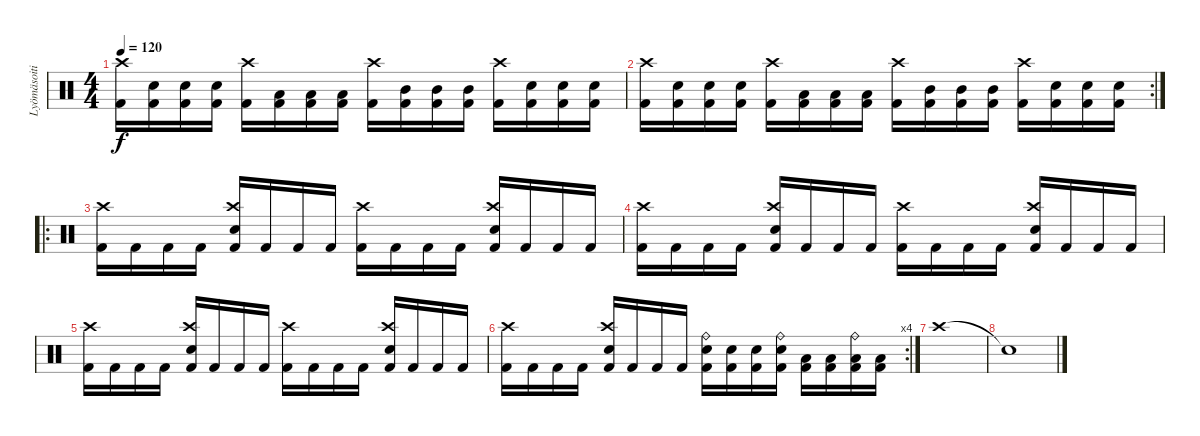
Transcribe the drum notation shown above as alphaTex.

\track ("Lyömäsoitin" "Lyömäsoiti") {instrument percussion}
\staff {score}
\articulation defaults
\ts (4 4)
\tempo 120
\clef neutral
\ks c
("Kick (hit) 2" "Crash high (hit)").16{dy f} ("Kick (hit) 2" "Electric Snare (hit)").16 ("Kick (hit) 2" "Electric Snare (hit)").16 ("Kick (hit) 2" "Electric Snare (hit)").16 ("Kick (hit) 2" "Crash high (hit)").16 ("Kick (hit) 2" "Low Tom (hit)").16 ("Kick (hit) 2" "Low Tom (hit)").16 ("Kick (hit) 2" "Low Tom (hit)").16 ("Kick (hit) 2" "Crash high (hit)").16 ("Kick (hit) 2" "Mid Tom (hit)").16 ("Kick (hit) 2" "Mid Tom (hit)").16 ("Kick (hit) 2" "Mid Tom (hit)").16 ("Kick (hit) 2" "Crash high (hit)").16 ("Kick (hit) 2" "Electric Snare (hit)").16 ("Kick (hit) 2" "Electric Snare (hit)").16 ("Kick (hit) 2" "Electric Snare (hit)").16 |
\rc 2
("Kick (hit) 2" "Crash high (hit)").16 ("Kick (hit) 2" "Electric Snare (hit)").16 ("Kick (hit) 2" "Electric Snare (hit)").16 ("Kick (hit) 2" "Electric Snare (hit)").16 ("Kick (hit) 2" "Crash high (hit)").16 ("Kick (hit) 2" "Low Tom (hit)").16 ("Kick (hit) 2" "Low Tom (hit)").16 ("Kick (hit) 2" "Low Tom (hit)").16 ("Kick (hit) 2" "Crash high (hit)").16 ("Kick (hit) 2" "Mid Tom (hit)").16 ("Kick (hit) 2" "Mid Tom (hit)").16 ("Kick (hit) 2" "Mid Tom (hit)").16 ("Kick (hit) 2" "Crash high (hit)").16 ("Kick (hit) 2" "Electric Snare (hit)").16 ("Kick (hit) 2" "Electric Snare (hit)").16 ("Kick (hit) 2" "Electric Snare (hit)").16 |
\ro
("Kick (hit) 2" "Crash high (hit)").16 "Kick (hit) 2".16 "Kick (hit) 2".16 "Kick (hit) 2".16 ("Kick (hit) 2" "Crash high (hit)" "Electric Snare (hit)").16 "Kick (hit) 2".16 "Kick (hit) 2".16 "Kick (hit) 2".16 ("Kick (hit) 2" "Crash high (hit)").16 "Kick (hit) 2".16 "Kick (hit) 2".16 "Kick (hit) 2".16 ("Kick (hit) 2" "Crash high (hit)" "Electric Snare (hit)").16 "Kick (hit) 2".16 "Kick (hit) 2".16 "Kick (hit) 2".16 |
("Kick (hit) 2" "Crash high (hit)").16 "Kick (hit) 2".16 "Kick (hit) 2".16 "Kick (hit) 2".16 ("Kick (hit) 2" "Crash high (hit)" "Electric Snare (hit)").16 "Kick (hit) 2".16 "Kick (hit) 2".16 "Kick (hit) 2".16 ("Kick (hit) 2" "Crash high (hit)").16 "Kick (hit) 2".16 "Kick (hit) 2".16 "Kick (hit) 2".16 ("Kick (hit) 2" "Crash high (hit)" "Electric Snare (hit)").16 "Kick (hit) 2".16 "Kick (hit) 2".16 "Kick (hit) 2".16 |
("Kick (hit) 2" "Crash high (hit)").16 "Kick (hit) 2".16 "Kick (hit) 2".16 "Kick (hit) 2".16 ("Kick (hit) 2" "Crash high (hit)" "Electric Snare (hit)").16 "Kick (hit) 2".16 "Kick (hit) 2".16 "Kick (hit) 2".16 ("Kick (hit) 2" "Crash high (hit)").16 "Kick (hit) 2".16 "Kick (hit) 2".16 "Kick (hit) 2".16 ("Kick (hit) 2" "Crash high (hit)" "Electric Snare (hit)").16 "Kick (hit) 2".16 "Kick (hit) 2".16 "Kick (hit) 2".16 |
\rc 4
("Kick (hit) 2" "Crash high (hit)").16 "Kick (hit) 2".16 "Kick (hit) 2".16 "Kick (hit) 2".16 ("Kick (hit) 2" "Crash high (hit)" "Electric Snare (hit)").16 "Kick (hit) 2".16 "Kick (hit) 2".16 "Kick (hit) 2".16 ("Kick (hit) 2" "Electric Snare (hit)" "Ride (bell)").16 ("Kick (hit) 2" "Electric Snare (hit)").16 ("Kick (hit) 2" "Electric Snare (hit)").16 ("Kick (hit) 2" "Electric Snare (hit)" "Ride (bell)").16 ("Kick (hit) 2" "Low Tom (hit)").16 ("Kick (hit) 2" "Low Tom (hit)").16 ("Kick (hit) 2" "Low Tom (hit)" "Ride (bell)").16 ("Kick (hit) 2" "Low Tom (hit)").16 |
"Crash high (hit)".1 |
"Snare (hit)"{t}.1
